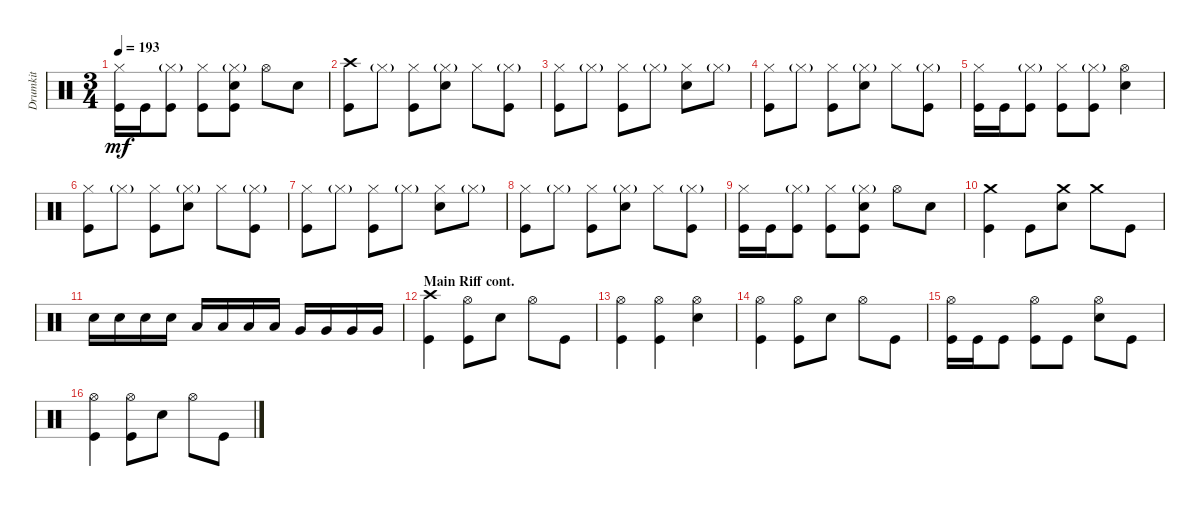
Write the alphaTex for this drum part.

\track ("Drumkit" "Drumkit") {instrument percussion}
\staff {score}
\articulation defaults
\ts (3 4)
\tempo 193
\clef neutral
\ks c
("Hi-Hat (closed)" "Kick (hit)").16{dy mf} "Kick (hit)".16 ("Hi-Hat (closed)"{g} "Kick (hit)").8 ("Hi-Hat (closed)" "Kick (hit)").8 ("Hi-Hat (closed)"{g} "Kick (hit)" "Snare (hit) 2").8 "Hi-Hat (open)".8 "Snare (hit) 2".8 |
("Crash high (hit)" "Kick (hit)").8 "Hi-Hat (closed)"{g}.8 ("Hi-Hat (closed)" "Kick (hit)").8 ("Hi-Hat (closed)"{g} "Snare (hit) 2").8 "Hi-Hat (closed)".8 ("Hi-Hat (closed)"{g} "Kick (hit)").8 |
("Hi-Hat (closed)" "Kick (hit)").8 "Hi-Hat (closed)"{g}.8 ("Hi-Hat (closed)" "Kick (hit)").8 "Hi-Hat (closed)"{g}.8 ("Hi-Hat (closed)" "Snare (hit) 2").8 "Hi-Hat (closed)"{g}.8 |
("Hi-Hat (closed)" "Kick (hit)").8 "Hi-Hat (closed)"{g}.8 ("Hi-Hat (closed)" "Kick (hit)").8 ("Hi-Hat (closed)"{g} "Snare (hit) 2").8 "Hi-Hat (closed)".8 ("Hi-Hat (closed)"{g} "Kick (hit)").8 |
("Hi-Hat (closed)" "Kick (hit)").16 "Kick (hit)".16 ("Hi-Hat (closed)"{g} "Kick (hit)").8 ("Hi-Hat (closed)" "Kick (hit)").8 ("Hi-Hat (closed)"{g} "Kick (hit)").8 ("Hi-Hat (open)" "Snare (hit) 2").4 |
("Kick (hit)" "Hi-Hat (closed)").8 "Hi-Hat (closed)"{g}.8 ("Hi-Hat (closed)" "Kick (hit)").8 ("Hi-Hat (closed)"{g} "Snare (hit) 2").8 "Hi-Hat (closed)".8 ("Hi-Hat (closed)"{g} "Kick (hit)").8 |
("Hi-Hat (closed)" "Kick (hit)").8 "Hi-Hat (closed)"{g}.8 ("Hi-Hat (closed)" "Kick (hit)").8 "Hi-Hat (closed)"{g}.8 ("Hi-Hat (closed)" "Snare (hit) 2").8 "Hi-Hat (closed)"{g}.8 |
("Hi-Hat (closed)" "Kick (hit)").8 "Hi-Hat (closed)"{g}.8 ("Hi-Hat (closed)" "Kick (hit)").8 ("Hi-Hat (closed)"{g} "Snare (hit) 2").8 "Hi-Hat (closed)".8 ("Hi-Hat (closed)"{g} "Kick (hit)").8 |
("Hi-Hat (closed)" "Kick (hit)").16 "Kick (hit)".16 ("Hi-Hat (closed)"{g} "Kick (hit)").8 ("Hi-Hat (closed)" "Kick (hit)").8 ("Hi-Hat (closed)"{g} "Kick (hit)" "Snare (hit) 2").8 "Hi-Hat (open)".8 "Snare (hit) 2".8 |
("Crash medium (hit)" "Kick (hit)").4 "Kick (hit)".8 ("Crash medium (hit)" "Snare (hit) 2").8 "Crash medium (hit)".8 "Kick (hit)".8 |
"Snare (hit) 2".16 "Snare (hit) 2".16 "Snare (hit) 2".16 "Snare (hit) 2".16 "Low Tom (hit)".16 "Low Tom (hit)".16 "Low Tom (hit)".16 "Low Tom (hit)".16 "Very Low Tom (hit)".16 "Very Low Tom (hit)".16 "Very Low Tom (hit)".16 "Very Low Tom (hit)".16 |
\section ("" "Main Riff cont.")
("Crash high (hit)" "Kick (hit)").4 ("Hi-Hat (open)" "Kick (hit)").8 "Snare (hit) 2".8 "Hi-Hat (open)".8 "Kick (hit)".8 |
("Hi-Hat (open)" "Kick (hit)").4 ("Hi-Hat (open)" "Kick (hit)").4 ("Hi-Hat (open)" "Snare (hit) 2").4 |
("Kick (hit)" "Hi-Hat (open)").4 ("Hi-Hat (open)" "Kick (hit)").8 "Snare (hit) 2".8 "Hi-Hat (open)".8 "Kick (hit)".8 |
("Hi-Hat (open)" "Kick (hit)").16 "Kick (hit)".16 "Kick (hit)".8 ("Hi-Hat (open)" "Kick (hit)").8 "Kick (hit)".8 ("Hi-Hat (open)" "Snare (hit) 2").8 "Kick (hit)".8 |
("Kick (hit)" "Hi-Hat (open)").4 ("Hi-Hat (open)" "Kick (hit)").8 "Snare (hit) 2".8 "Hi-Hat (open)".8 "Kick (hit)".8
